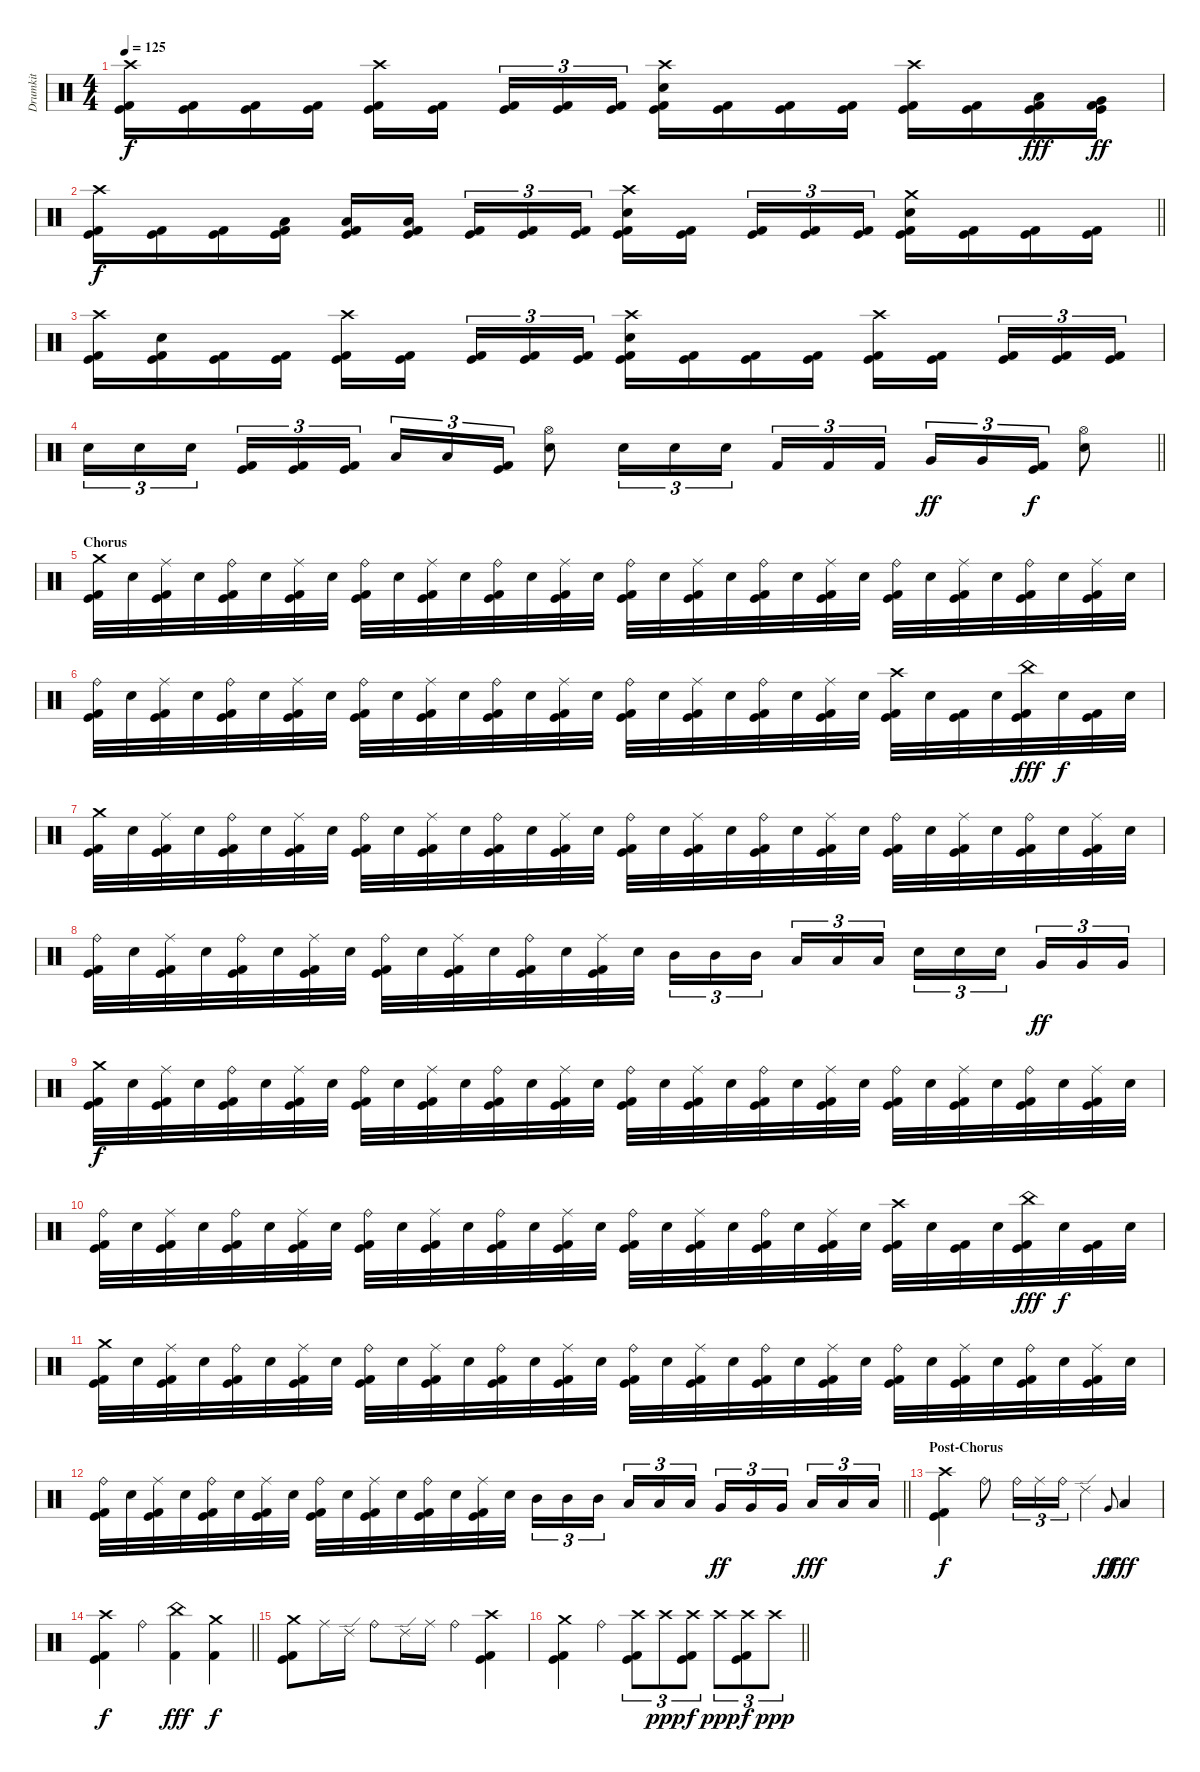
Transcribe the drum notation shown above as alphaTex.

\track ("Drumkit" "Drumkit") {instrument percussion}
\staff {score}
\articulation defaults
\ts (4 4)
\tempo 125
\clef neutral
\ks c
("Crash high (hit)" "Kick (hit)" "Kick (hit) 2").16{dy f} ("Kick (hit)" "Kick (hit) 2").16 ("Kick (hit)" "Kick (hit) 2").16 ("Kick (hit)" "Kick (hit) 2").16 ("Crash high (hit)" "Kick (hit)" "Kick (hit) 2").16 ("Kick (hit)" "Kick (hit) 2").16{beam splitsecondary} ("Kick (hit)" "Kick (hit) 2").16{tu (3 2)} ("Kick (hit)" "Kick (hit) 2").16{tu (3 2)} ("Kick (hit)" "Kick (hit) 2").16{tu (3 2)} ("Crash high (hit)" "Electric Snare (hit)" "Kick (hit)" "Kick (hit) 2").16 ("Kick (hit)" "Kick (hit) 2").16 ("Kick (hit)" "Kick (hit) 2").16 ("Kick (hit)" "Kick (hit) 2").16 ("Crash high (hit)" "Kick (hit)" "Kick (hit) 2").16 ("Kick (hit)" "Kick (hit) 2").16 ("Low Floor Tom (hit)" "Kick (hit)" "Kick (hit) 2").16{dy fff} ("Very Low Tom (hit)" "Kick (hit)" "Kick (hit) 2").16{dy ff} |
\barLineRight lightlight
("Crash high (hit)" "Kick (hit)" "Kick (hit) 2").16{dy f} ("Kick (hit)" "Kick (hit) 2").16 ("Kick (hit)" "Kick (hit) 2").16 ("Low Tom (hit)" "Kick (hit)" "Kick (hit) 2").16 ("Low Tom (hit)" "Kick (hit)" "Kick (hit) 2").16 ("Low Tom (hit)" "Kick (hit)" "Kick (hit) 2").16{beam splitsecondary} ("Kick (hit)" "Kick (hit) 2").16{tu (3 2)} ("Kick (hit)" "Kick (hit) 2").16{tu (3 2)} ("Kick (hit)" "Kick (hit) 2").16{tu (3 2)} ("Crash high (hit)" "Electric Snare (hit)" "Kick (hit)" "Kick (hit) 2").16 ("Kick (hit)" "Kick (hit) 2").16{beam splitsecondary} ("Kick (hit)" "Kick (hit) 2").16{tu (3 2)} ("Kick (hit)" "Kick (hit) 2").16{tu (3 2)} ("Kick (hit)" "Kick (hit) 2").16{tu (3 2)} ("Crash medium (hit)" "Electric Snare (hit)" "Kick (hit)" "Kick (hit) 2").16 ("Kick (hit)" "Kick (hit) 2").16 ("Kick (hit)" "Kick (hit) 2").16 ("Kick (hit)" "Kick (hit) 2").16 |
("Crash high (hit)" "Kick (hit)" "Kick (hit) 2").16 ("Electric Snare (hit)" "Kick (hit)" "Kick (hit) 2").16 ("Kick (hit)" "Kick (hit) 2").16 ("Kick (hit)" "Kick (hit) 2").16 ("Crash high (hit)" "Kick (hit)" "Kick (hit) 2").16 ("Kick (hit)" "Kick (hit) 2").16{beam splitsecondary} ("Kick (hit)" "Kick (hit) 2").16{tu (3 2)} ("Kick (hit)" "Kick (hit) 2").16{tu (3 2)} ("Kick (hit)" "Kick (hit) 2").16{tu (3 2)} ("Crash high (hit)" "Electric Snare (hit)" "Kick (hit)" "Kick (hit) 2").16 ("Kick (hit)" "Kick (hit) 2").16 ("Kick (hit)" "Kick (hit) 2").16 ("Kick (hit)" "Kick (hit) 2").16 ("Crash high (hit)" "Kick (hit)" "Kick (hit) 2").16 ("Kick (hit)" "Kick (hit) 2").16{beam splitsecondary} ("Kick (hit)" "Kick (hit) 2").16{tu (3 2)} ("Kick (hit)" "Kick (hit) 2").16{tu (3 2)} ("Kick (hit)" "Kick (hit) 2").16{tu (3 2)} |
\barLineRight lightlight "Electric Snare (hit)".16{tu (3 2)} "Electric Snare (hit)".16{tu (3 2)} "Electric Snare (hit)".16{tu (3 2) beam splitsecondary}
("Kick (hit)" "Kick (hit) 2").16{tu (3 2)} ("Kick (hit)" "Kick (hit) 2").16{tu (3 2)} ("Kick (hit)" "Kick (hit) 2").16{tu (3 2)} "Low Tom (hit)".16{tu (3 2)} "Low Tom (hit)".16{tu (3 2)} ("Kick (hit)" "Kick (hit) 2").16{tu (3 2)} ("Hi-Hat (open)" "Electric Snare (hit)").8 "Electric Snare (hit)".16{tu (3 2)} "Electric Snare (hit)".16{tu (3 2)} "Electric Snare (hit)".16{tu (3 2) beam splitsecondary} "Kick (hit) 2".16{tu (3 2)} "Kick (hit) 2".16{tu (3 2)} "Kick (hit) 2".16{tu (3 2)} "Very Low Tom (hit)".16{tu (3 2) dy ff} "Very Low Tom (hit)".16{tu (3 2)} ("Kick (hit)" "Kick (hit) 2").16{tu (3 2) dy f} ("Hi-Hat (open)" "Electric Snare (hit)").8 |
\section ("" "Chorus")
("Crash medium (hit)" "Kick (hit)" "Kick (hit) 2").32 "Electric Snare (hit)".32 ("Ride (middle)" "Kick (hit)" "Kick (hit) 2").32 "Electric Snare (hit)".32 ("Ride (bell)" "Kick (hit)" "Kick (hit) 2").32 "Electric Snare (hit)".32 ("Ride (middle)" "Kick (hit)" "Kick (hit) 2").32 "Electric Snare (hit)".32 ("Ride (bell)" "Kick (hit)" "Kick (hit) 2").32 "Electric Snare (hit)".32 ("Ride (middle)" "Kick (hit)" "Kick (hit) 2").32 "Electric Snare (hit)".32 ("Ride (bell)" "Kick (hit)" "Kick (hit) 2").32 "Electric Snare (hit)".32 ("Ride (middle)" "Kick (hit)" "Kick (hit) 2").32 "Electric Snare (hit)".32 ("Ride (bell)" "Kick (hit)" "Kick (hit) 2").32 "Electric Snare (hit)".32 ("Ride (middle)" "Kick (hit)" "Kick (hit) 2").32 "Electric Snare (hit)".32 ("Ride (bell)" "Kick (hit)" "Kick (hit) 2").32 "Electric Snare (hit)".32 ("Ride (middle)" "Kick (hit)" "Kick (hit) 2").32 "Electric Snare (hit)".32 ("Ride (bell)" "Kick (hit)" "Kick (hit) 2").32 "Electric Snare (hit)".32 ("Ride (middle)" "Kick (hit)" "Kick (hit) 2").32 "Electric Snare (hit)".32 ("Ride (bell)" "Kick (hit)" "Kick (hit) 2").32 "Electric Snare (hit)".32 ("Ride (middle)" "Kick (hit)" "Kick (hit) 2").32 "Electric Snare (hit)".32 |
("Ride (bell)" "Kick (hit)" "Kick (hit) 2").32 "Electric Snare (hit)".32 ("Ride (middle)" "Kick (hit)" "Kick (hit) 2").32 "Electric Snare (hit)".32 ("Ride (bell)" "Kick (hit)" "Kick (hit) 2").32 "Electric Snare (hit)".32 ("Ride (middle)" "Kick (hit)" "Kick (hit) 2").32 "Electric Snare (hit)".32 ("Ride (bell)" "Kick (hit)" "Kick (hit) 2").32 "Electric Snare (hit)".32 ("Ride (middle)" "Kick (hit)" "Kick (hit) 2").32 "Electric Snare (hit)".32 ("Ride (bell)" "Kick (hit)" "Kick (hit) 2").32 "Electric Snare (hit)".32 ("Ride (middle)" "Kick (hit)" "Kick (hit) 2").32 "Electric Snare (hit)".32 ("Ride (bell)" "Kick (hit)" "Kick (hit) 2").32 "Electric Snare (hit)".32 ("Ride (middle)" "Kick (hit)" "Kick (hit) 2").32 "Electric Snare (hit)".32 ("Ride (bell)" "Kick (hit)" "Kick (hit) 2").32 "Electric Snare (hit)".32 ("Ride (middle)" "Kick (hit)" "Kick (hit) 2").32 "Electric Snare (hit)".32 ("Crash high (hit)" "Kick (hit)" "Kick (hit) 2").32 "Electric Snare (hit)".32 ("Kick (hit)" "Kick (hit) 2").32 "Electric Snare (hit)".32 ("China (hit)" "Kick (hit)" "Kick (hit) 2").32{dy fff} "Electric Snare (hit)".32{dy f} ("Kick (hit)" "Kick (hit) 2").32 "Electric Snare (hit)".32 |
("Crash medium (hit)" "Kick (hit)" "Kick (hit) 2").32 "Electric Snare (hit)".32 ("Ride (middle)" "Kick (hit)" "Kick (hit) 2").32 "Electric Snare (hit)".32 ("Ride (bell)" "Kick (hit)" "Kick (hit) 2").32 "Electric Snare (hit)".32 ("Ride (middle)" "Kick (hit)" "Kick (hit) 2").32 "Electric Snare (hit)".32 ("Ride (bell)" "Kick (hit)" "Kick (hit) 2").32 "Electric Snare (hit)".32 ("Ride (middle)" "Kick (hit)" "Kick (hit) 2").32 "Electric Snare (hit)".32 ("Ride (bell)" "Kick (hit)" "Kick (hit) 2").32 "Electric Snare (hit)".32 ("Ride (middle)" "Kick (hit)" "Kick (hit) 2").32 "Electric Snare (hit)".32 ("Ride (bell)" "Kick (hit)" "Kick (hit) 2").32 "Electric Snare (hit)".32 ("Ride (middle)" "Kick (hit)" "Kick (hit) 2").32 "Electric Snare (hit)".32 ("Ride (bell)" "Kick (hit)" "Kick (hit) 2").32 "Electric Snare (hit)".32 ("Ride (middle)" "Kick (hit)" "Kick (hit) 2").32 "Electric Snare (hit)".32 ("Ride (bell)" "Kick (hit)" "Kick (hit) 2").32 "Electric Snare (hit)".32 ("Ride (middle)" "Kick (hit)" "Kick (hit) 2").32 "Electric Snare (hit)".32 ("Ride (bell)" "Kick (hit)" "Kick (hit) 2").32 "Electric Snare (hit)".32 ("Ride (middle)" "Kick (hit)" "Kick (hit) 2").32 "Electric Snare (hit)".32 |
("Ride (bell)" "Kick (hit)" "Kick (hit) 2").32 "Electric Snare (hit)".32 ("Ride (middle)" "Kick (hit)" "Kick (hit) 2").32 "Electric Snare (hit)".32 ("Ride (bell)" "Kick (hit)" "Kick (hit) 2").32 "Electric Snare (hit)".32 ("Ride (middle)" "Kick (hit)" "Kick (hit) 2").32 "Electric Snare (hit)".32 ("Ride (bell)" "Kick (hit)" "Kick (hit) 2").32 "Electric Snare (hit)".32 ("Ride (middle)" "Kick (hit)" "Kick (hit) 2").32 "Electric Snare (hit)".32 ("Ride (bell)" "Kick (hit)" "Kick (hit) 2").32 "Electric Snare (hit)".32 ("Ride (middle)" "Kick (hit)" "Kick (hit) 2").32 "Electric Snare (hit)".32 "Mid Tom (hit)".16{tu (3 2)} "Mid Tom (hit)".16{tu (3 2)} "Mid Tom (hit)".16{tu (3 2) beam splitsecondary} "Low Tom (hit)".16{tu (3 2)} "Low Tom (hit)".16{tu (3 2)} "Low Tom (hit)".16{tu (3 2)} "Electric Snare (hit)".16{tu (3 2)} "Electric Snare (hit)".16{tu (3 2)} "Electric Snare (hit)".16{tu (3 2) beam splitsecondary} "Very Low Tom (hit)".16{tu (3 2) dy ff} "Very Low Tom (hit)".16{tu (3 2)} "Very Low Tom (hit)".16{tu (3 2)} |
("Crash medium (hit)" "Kick (hit)" "Kick (hit) 2").32{dy f} "Electric Snare (hit)".32 ("Ride (middle)" "Kick (hit)" "Kick (hit) 2").32 "Electric Snare (hit)".32 ("Ride (bell)" "Kick (hit)" "Kick (hit) 2").32 "Electric Snare (hit)".32 ("Ride (middle)" "Kick (hit)" "Kick (hit) 2").32 "Electric Snare (hit)".32 ("Ride (bell)" "Kick (hit)" "Kick (hit) 2").32 "Electric Snare (hit)".32 ("Ride (middle)" "Kick (hit)" "Kick (hit) 2").32 "Electric Snare (hit)".32 ("Ride (bell)" "Kick (hit)" "Kick (hit) 2").32 "Electric Snare (hit)".32 ("Ride (middle)" "Kick (hit)" "Kick (hit) 2").32 "Electric Snare (hit)".32 ("Ride (bell)" "Kick (hit)" "Kick (hit) 2").32 "Electric Snare (hit)".32 ("Ride (middle)" "Kick (hit)" "Kick (hit) 2").32 "Electric Snare (hit)".32 ("Ride (bell)" "Kick (hit)" "Kick (hit) 2").32 "Electric Snare (hit)".32 ("Ride (middle)" "Kick (hit)" "Kick (hit) 2").32 "Electric Snare (hit)".32 ("Ride (bell)" "Kick (hit)" "Kick (hit) 2").32 "Electric Snare (hit)".32 ("Ride (middle)" "Kick (hit)" "Kick (hit) 2").32 "Electric Snare (hit)".32 ("Ride (bell)" "Kick (hit)" "Kick (hit) 2").32 "Electric Snare (hit)".32 ("Ride (middle)" "Kick (hit)" "Kick (hit) 2").32 "Electric Snare (hit)".32 |
("Ride (bell)" "Kick (hit)" "Kick (hit) 2").32 "Electric Snare (hit)".32 ("Ride (middle)" "Kick (hit)" "Kick (hit) 2").32 "Electric Snare (hit)".32 ("Ride (bell)" "Kick (hit)" "Kick (hit) 2").32 "Electric Snare (hit)".32 ("Ride (middle)" "Kick (hit)" "Kick (hit) 2").32 "Electric Snare (hit)".32 ("Ride (bell)" "Kick (hit)" "Kick (hit) 2").32 "Electric Snare (hit)".32 ("Ride (middle)" "Kick (hit)" "Kick (hit) 2").32 "Electric Snare (hit)".32 ("Ride (bell)" "Kick (hit)" "Kick (hit) 2").32 "Electric Snare (hit)".32 ("Ride (middle)" "Kick (hit)" "Kick (hit) 2").32 "Electric Snare (hit)".32 ("Ride (bell)" "Kick (hit)" "Kick (hit) 2").32 "Electric Snare (hit)".32 ("Ride (middle)" "Kick (hit)" "Kick (hit) 2").32 "Electric Snare (hit)".32 ("Ride (bell)" "Kick (hit)" "Kick (hit) 2").32 "Electric Snare (hit)".32 ("Ride (middle)" "Kick (hit)" "Kick (hit) 2").32 "Electric Snare (hit)".32 ("Crash high (hit)" "Kick (hit)" "Kick (hit) 2").32 "Electric Snare (hit)".32 ("Kick (hit)" "Kick (hit) 2").32 "Electric Snare (hit)".32 ("China (hit)" "Kick (hit)" "Kick (hit) 2").32{dy fff} "Electric Snare (hit)".32{dy f} ("Kick (hit)" "Kick (hit) 2").32 "Electric Snare (hit)".32 |
("Crash medium (hit)" "Kick (hit)" "Kick (hit) 2").32 "Electric Snare (hit)".32 ("Ride (middle)" "Kick (hit)" "Kick (hit) 2").32 "Electric Snare (hit)".32 ("Ride (bell)" "Kick (hit)" "Kick (hit) 2").32 "Electric Snare (hit)".32 ("Ride (middle)" "Kick (hit)" "Kick (hit) 2").32 "Electric Snare (hit)".32 ("Ride (bell)" "Kick (hit)" "Kick (hit) 2").32 "Electric Snare (hit)".32 ("Ride (middle)" "Kick (hit)" "Kick (hit) 2").32 "Electric Snare (hit)".32 ("Ride (bell)" "Kick (hit)" "Kick (hit) 2").32 "Electric Snare (hit)".32 ("Ride (middle)" "Kick (hit)" "Kick (hit) 2").32 "Electric Snare (hit)".32 ("Ride (bell)" "Kick (hit)" "Kick (hit) 2").32 "Electric Snare (hit)".32 ("Ride (middle)" "Kick (hit)" "Kick (hit) 2").32 "Electric Snare (hit)".32 ("Ride (bell)" "Kick (hit)" "Kick (hit) 2").32 "Electric Snare (hit)".32 ("Ride (middle)" "Kick (hit)" "Kick (hit) 2").32 "Electric Snare (hit)".32 ("Ride (bell)" "Kick (hit)" "Kick (hit) 2").32 "Electric Snare (hit)".32 ("Ride (middle)" "Kick (hit)" "Kick (hit) 2").32 "Electric Snare (hit)".32 ("Ride (bell)" "Kick (hit)" "Kick (hit) 2").32 "Electric Snare (hit)".32 ("Ride (middle)" "Kick (hit)" "Kick (hit) 2").32 "Electric Snare (hit)".32 |
\barLineRight lightlight
("Ride (bell)" "Kick (hit)" "Kick (hit) 2").32 "Electric Snare (hit)".32 ("Ride (middle)" "Kick (hit)" "Kick (hit) 2").32 "Electric Snare (hit)".32 ("Ride (bell)" "Kick (hit)" "Kick (hit) 2").32 "Electric Snare (hit)".32 ("Ride (middle)" "Kick (hit)" "Kick (hit) 2").32 "Electric Snare (hit)".32 ("Ride (bell)" "Kick (hit)" "Kick (hit) 2").32 "Electric Snare (hit)".32 ("Ride (middle)" "Kick (hit)" "Kick (hit) 2").32 "Electric Snare (hit)".32 ("Ride (bell)" "Kick (hit)" "Kick (hit) 2").32 "Electric Snare (hit)".32 ("Ride (middle)" "Kick (hit)" "Kick (hit) 2").32 "Electric Snare (hit)".32 "Mid Tom (hit)".16{tu (3 2)} "Mid Tom (hit)".16{tu (3 2)} "Mid Tom (hit)".16{tu (3 2) beam splitsecondary} "Low Tom (hit)".16{tu (3 2)} "Low Tom (hit)".16{tu (3 2)} "Low Tom (hit)".16{tu (3 2)} "Very Low Tom (hit)".16{tu (3 2) dy ff} "Very Low Tom (hit)".16{tu (3 2)} "Very Low Tom (hit)".16{tu (3 2) beam splitsecondary} "Low Floor Tom (hit)".16{tu (3 2) dy fff} "Low Floor Tom (hit)".16{tu (3 2)} "Low Floor Tom (hit)".16{tu (3 2)} |
\section ("" "Post-Chorus")
("Crash high (hit)" "Kick (hit)" "Kick (hit) 2").4{dy f} "Ride (bell)".8 "Ride (bell)".16{tu (3 2)} "Ride (middle)".16{tu (3 2)} "Ride (bell)".16{tu (3 2)} "Ride (edge) 2".4 "Very Low Tom (hit)".8{gr onbeat dy ff} "Low Floor Tom (hit)".4{dy fff} |
\barLineRight lightlight
("Crash high (hit)" "Kick (hit)" "Kick (hit) 2").4{dy f} "Ride (bell)".4 ("China (hit)" "Kick (hit) 2").4{dy fff} ("Crash medium (hit)" "Kick (hit) 2").4{dy f} |
("Crash medium (hit)" "Kick (hit)" "Kick (hit) 2").8 "Ride (middle)".16 "Ride (edge) 2".16 "Ride (bell)".8 "Ride (edge) 2".16 "Ride (middle)".16 "Ride (bell)".4 ("Crash high (hit)" "Kick (hit)" "Kick (hit) 2").4 |
\barLineRight lightlight
("Crash medium (hit)" "Kick (hit)" "Kick (hit) 2").4 "Ride (bell)".4 ("Crash high (hit)" "Kick (hit)" "Kick (hit) 2").8{tu (3 2)} "Crash high (hit)".8{tu (3 2) dy ppp} ("Crash high (hit)" "Kick (hit)" "Kick (hit) 2").8{tu (3 2) dy f} "Crash high (hit)".8{tu (3 2) dy ppp} ("Crash high (hit)" "Kick (hit)" "Kick (hit) 2").8{tu (3 2) dy f} "Crash high (hit)".8{tu (3 2) dy ppp}
